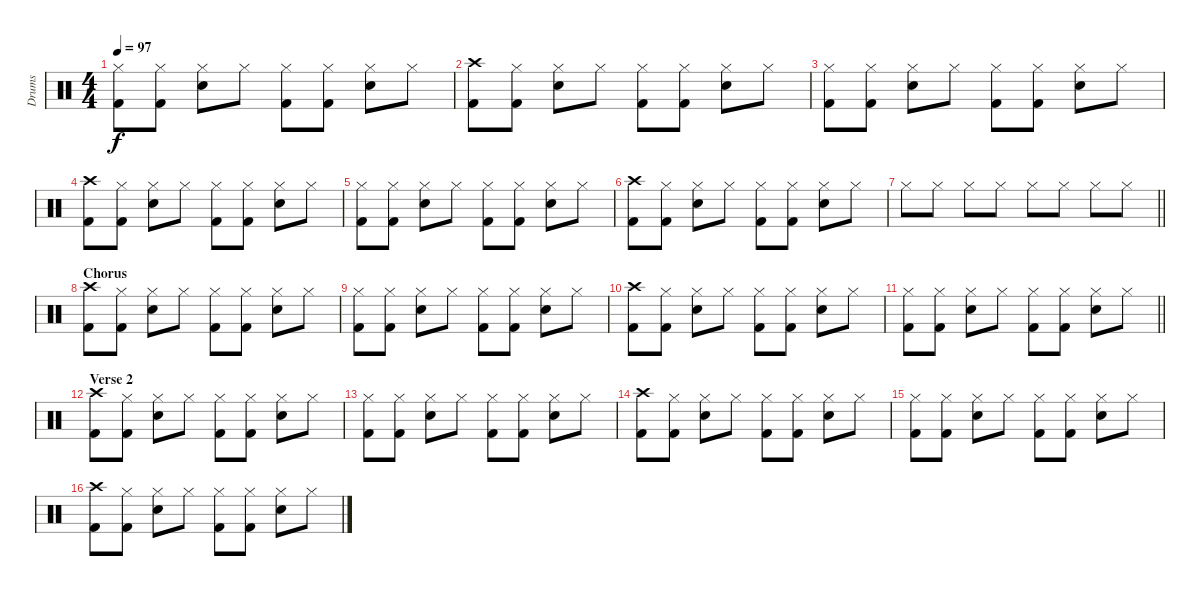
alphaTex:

\track ("Drums" "Drums") {instrument percussion}
\staff {score}
\articulation defaults
\ts (4 4)
\tempo 97
\clef neutral
\ks c
("Hi-Hat (closed)" "Kick (hit) 2").8{dy f} ("Hi-Hat (closed)" "Kick (hit) 2").8 ("Hi-Hat (closed)" "Electric Snare (hit)").8 "Hi-Hat (closed)".8 ("Hi-Hat (closed)" "Kick (hit) 2").8 ("Hi-Hat (closed)" "Kick (hit) 2").8 ("Hi-Hat (closed)" "Electric Snare (hit)").8 "Hi-Hat (closed)".8 |
("Crash high (hit)" "Kick (hit) 2").8 ("Hi-Hat (closed)" "Kick (hit) 2").8 ("Hi-Hat (closed)" "Electric Snare (hit)").8 "Hi-Hat (closed)".8 ("Hi-Hat (closed)" "Kick (hit) 2").8 ("Hi-Hat (closed)" "Kick (hit) 2").8 ("Hi-Hat (closed)" "Electric Snare (hit)").8 "Hi-Hat (closed)".8 |
("Hi-Hat (closed)" "Kick (hit) 2").8 ("Hi-Hat (closed)" "Kick (hit) 2").8 ("Hi-Hat (closed)" "Electric Snare (hit)").8 "Hi-Hat (closed)".8 ("Hi-Hat (closed)" "Kick (hit) 2").8 ("Hi-Hat (closed)" "Kick (hit) 2").8 ("Hi-Hat (closed)" "Electric Snare (hit)").8 "Hi-Hat (closed)".8 |
("Crash high (hit)" "Kick (hit) 2").8 ("Hi-Hat (closed)" "Kick (hit) 2").8 ("Hi-Hat (closed)" "Electric Snare (hit)").8 "Hi-Hat (closed)".8 ("Hi-Hat (closed)" "Kick (hit) 2").8 ("Hi-Hat (closed)" "Kick (hit) 2").8 ("Hi-Hat (closed)" "Electric Snare (hit)").8 "Hi-Hat (closed)".8 |
("Hi-Hat (closed)" "Kick (hit) 2").8 ("Hi-Hat (closed)" "Kick (hit) 2").8 ("Hi-Hat (closed)" "Electric Snare (hit)").8 "Hi-Hat (closed)".8 ("Hi-Hat (closed)" "Kick (hit) 2").8 ("Hi-Hat (closed)" "Kick (hit) 2").8 ("Hi-Hat (closed)" "Electric Snare (hit)").8 "Hi-Hat (closed)".8 |
("Crash high (hit)" "Kick (hit) 2").8 ("Hi-Hat (closed)" "Kick (hit) 2").8 ("Hi-Hat (closed)" "Electric Snare (hit)").8 "Hi-Hat (closed)".8 ("Hi-Hat (closed)" "Kick (hit) 2").8 ("Hi-Hat (closed)" "Kick (hit) 2").8 ("Hi-Hat (closed)" "Electric Snare (hit)").8 "Hi-Hat (closed)".8 |
\barLineRight lightlight "Hi-Hat (closed)".8 "Hi-Hat (closed)".8 "Hi-Hat (closed)".8 "Hi-Hat (closed)".8 "Hi-Hat (closed)".8 "Hi-Hat (closed)".8 "Hi-Hat (closed)".8 "Hi-Hat (closed)".8
|
\section ("" "Chorus")
("Crash high (hit)" "Kick (hit) 2").8 ("Hi-Hat (closed)" "Kick (hit) 2").8 ("Hi-Hat (closed)" "Electric Snare (hit)").8 "Hi-Hat (closed)".8 ("Hi-Hat (closed)" "Kick (hit) 2").8 ("Hi-Hat (closed)" "Kick (hit) 2").8 ("Hi-Hat (closed)" "Electric Snare (hit)").8 "Hi-Hat (closed)".8 |
("Hi-Hat (closed)" "Kick (hit) 2").8 ("Hi-Hat (closed)" "Kick (hit) 2").8 ("Hi-Hat (closed)" "Electric Snare (hit)").8 "Hi-Hat (closed)".8 ("Hi-Hat (closed)" "Kick (hit) 2").8 ("Hi-Hat (closed)" "Kick (hit) 2").8 ("Hi-Hat (closed)" "Electric Snare (hit)").8 "Hi-Hat (closed)".8 |
("Crash high (hit)" "Kick (hit) 2").8 ("Hi-Hat (closed)" "Kick (hit) 2").8 ("Hi-Hat (closed)" "Electric Snare (hit)").8 "Hi-Hat (closed)".8 ("Hi-Hat (closed)" "Kick (hit) 2").8 ("Hi-Hat (closed)" "Kick (hit) 2").8 ("Hi-Hat (closed)" "Electric Snare (hit)").8 "Hi-Hat (closed)".8 |
\barLineRight lightlight
("Hi-Hat (closed)" "Kick (hit) 2").8 ("Hi-Hat (closed)" "Kick (hit) 2").8 ("Hi-Hat (closed)" "Electric Snare (hit)").8 "Hi-Hat (closed)".8 ("Hi-Hat (closed)" "Kick (hit) 2").8 ("Hi-Hat (closed)" "Kick (hit) 2").8 ("Hi-Hat (closed)" "Electric Snare (hit)").8 "Hi-Hat (closed)".8 |
\section ("" "Verse 2")
("Crash high (hit)" "Kick (hit) 2").8 ("Hi-Hat (closed)" "Kick (hit) 2").8 ("Hi-Hat (closed)" "Electric Snare (hit)").8 "Hi-Hat (closed)".8 ("Hi-Hat (closed)" "Kick (hit) 2").8 ("Hi-Hat (closed)" "Kick (hit) 2").8 ("Hi-Hat (closed)" "Electric Snare (hit)").8 "Hi-Hat (closed)".8 |
("Hi-Hat (closed)" "Kick (hit) 2").8 ("Hi-Hat (closed)" "Kick (hit) 2").8 ("Hi-Hat (closed)" "Electric Snare (hit)").8 "Hi-Hat (closed)".8 ("Hi-Hat (closed)" "Kick (hit) 2").8 ("Hi-Hat (closed)" "Kick (hit) 2").8 ("Hi-Hat (closed)" "Electric Snare (hit)").8 "Hi-Hat (closed)".8 |
("Crash high (hit)" "Kick (hit) 2").8 ("Hi-Hat (closed)" "Kick (hit) 2").8 ("Hi-Hat (closed)" "Electric Snare (hit)").8 "Hi-Hat (closed)".8 ("Hi-Hat (closed)" "Kick (hit) 2").8 ("Hi-Hat (closed)" "Kick (hit) 2").8 ("Hi-Hat (closed)" "Electric Snare (hit)").8 "Hi-Hat (closed)".8 |
("Hi-Hat (closed)" "Kick (hit) 2").8 ("Hi-Hat (closed)" "Kick (hit) 2").8 ("Hi-Hat (closed)" "Electric Snare (hit)").8 "Hi-Hat (closed)".8 ("Hi-Hat (closed)" "Kick (hit) 2").8 ("Hi-Hat (closed)" "Kick (hit) 2").8 ("Hi-Hat (closed)" "Electric Snare (hit)").8 "Hi-Hat (closed)".8 |
("Crash high (hit)" "Kick (hit) 2").8 ("Hi-Hat (closed)" "Kick (hit) 2").8 ("Hi-Hat (closed)" "Electric Snare (hit)").8 "Hi-Hat (closed)".8 ("Hi-Hat (closed)" "Kick (hit) 2").8 ("Hi-Hat (closed)" "Kick (hit) 2").8 ("Hi-Hat (closed)" "Electric Snare (hit)").8 "Hi-Hat (closed)".8
